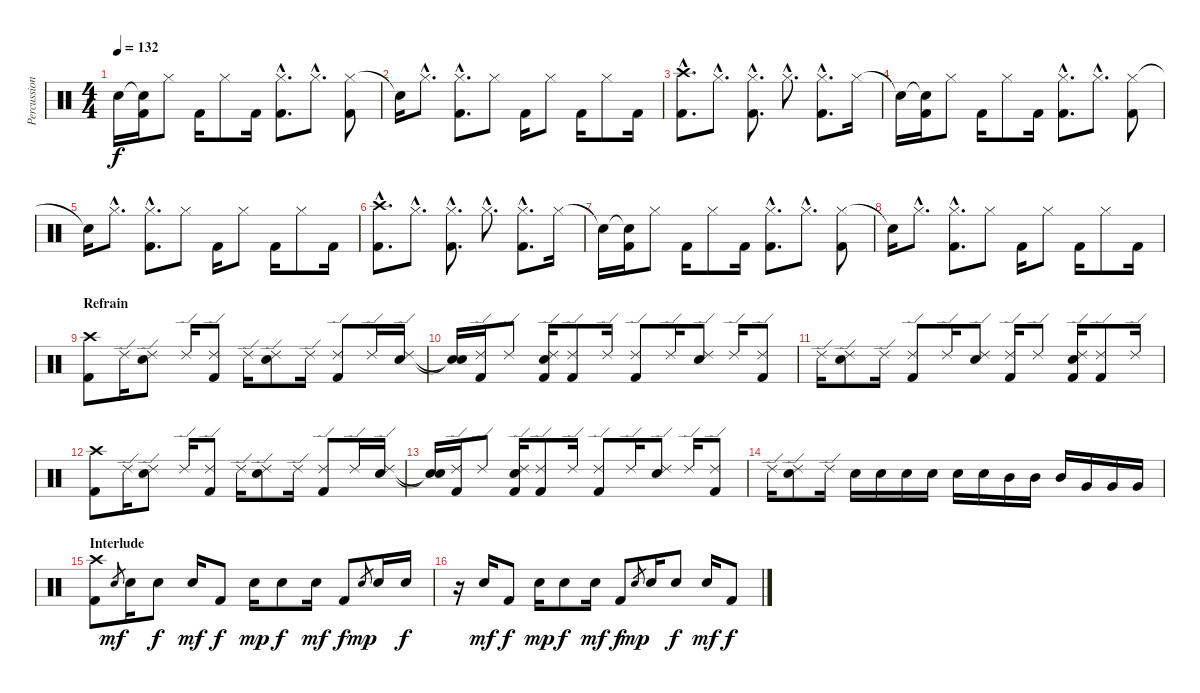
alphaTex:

\track ("Percussion" "Percussion") {instrument percussion}
\staff {score}
\articulation defaults
\ts (4 4)
\tempo 132
\clef neutral
\ks c "Snare (hit)"{t}.16{dy f}
("Snare (hit)"{t} "Kick (hit) 2").16 "Hi-Hat (closed)".8 "Kick (hit) 2".16 "Hi-Hat (closed)".8 "Kick (hit) 2".16 ("Hi-Hat (closed)"{hac} "Kick (hit) 2"{hac}).8{d} "Hi-Hat (closed)"{hac}.8{d} ("Hi-Hat (closed)" "Kick (hit) 2").8 |
"Snare (hit)"{t}.16 "Hi-Hat (closed)"{hac}.8{d} ("Hi-Hat (closed)"{hac} "Kick (hit) 2"{hac}).8{d} "Hi-Hat (closed)".8 "Kick (hit) 2".16 "Hi-Hat (closed)".8 "Kick (hit) 2".16 "Hi-Hat (closed)".8 "Kick (hit) 2".16 |
("Crash high (hit)"{hac} "Kick (hit) 2"{hac}).8{d} "Hi-Hat (closed)"{hac}.8{d} ("Hi-Hat (closed)"{hac} "Kick (hit) 2"{hac}).8{d} "Hi-Hat (closed)"{hac}.8{d} ("Hi-Hat (closed)"{hac} "Kick (hit) 2"{hac}).8{d} "Hi-Hat (closed)".16 |
"Snare (hit)"{t}.16 ("Snare (hit)"{t} "Kick (hit) 2").16 "Hi-Hat (closed)".8 "Kick (hit) 2".16 "Hi-Hat (closed)".8 "Kick (hit) 2".16 ("Hi-Hat (closed)"{hac} "Kick (hit) 2"{hac}).8{d} "Hi-Hat (closed)"{hac}.8{d} ("Hi-Hat (closed)" "Kick (hit) 2").8 |
"Snare (hit)"{t}.16 "Hi-Hat (closed)"{hac}.8{d} ("Hi-Hat (closed)"{hac} "Kick (hit) 2"{hac}).8{d} "Hi-Hat (closed)".8 "Kick (hit) 2".16 "Hi-Hat (closed)".8 "Kick (hit) 2".16 "Hi-Hat (closed)".8 "Kick (hit) 2".16 |
("Crash high (hit)"{hac} "Kick (hit) 2"{hac}).8{d} "Hi-Hat (closed)"{hac}.8{d} ("Hi-Hat (closed)"{hac} "Kick (hit) 2"{hac}).8{d} "Hi-Hat (closed)"{hac}.8{d} ("Hi-Hat (closed)"{hac} "Kick (hit) 2"{hac}).8{d} "Hi-Hat (closed)".16 |
"Snare (hit)"{t}.16 ("Snare (hit)"{t} "Kick (hit) 2").16 "Hi-Hat (closed)".8 "Kick (hit) 2".16 "Hi-Hat (closed)".8 "Kick (hit) 2".16 ("Hi-Hat (closed)"{hac} "Kick (hit) 2"{hac}).8{d} "Hi-Hat (closed)"{hac}.8{d} ("Hi-Hat (closed)" "Kick (hit) 2").8 |
"Snare (hit)"{t}.16 "Hi-Hat (closed)"{hac}.8{d} ("Hi-Hat (closed)"{hac} "Kick (hit) 2"{hac}).8{d} "Hi-Hat (closed)".8 "Kick (hit) 2".16 "Hi-Hat (closed)".8 "Kick (hit) 2".16 "Hi-Hat (closed)".8 "Kick (hit) 2".16 |
\section ("" "Refrain")
("Crash high (hit)" "Kick (hit) 2").8 "Ride (edge) 2".16 ("Ride (edge) 2" "Electric Snare (hit)").8 "Ride (edge) 2".16 ("Ride (edge) 2" "Kick (hit) 2").8 "Ride (edge) 2".16 ("Ride (edge) 2" "Electric Snare (hit)").8 "Ride (edge) 2".16 ("Ride (edge) 2" "Kick (hit) 2").8 "Ride (edge) 2".16 ("Ride (edge) 2" "Electric Snare (hit)").16 |
("Snare (hit)"{t} "Snare (hit)"{t}).16 ("Ride (edge) 2" "Kick (hit) 2").16 "Ride (edge) 2".8 ("Ride (edge) 2" "Electric Snare (hit)" "Kick (hit) 2").16 ("Ride (edge) 2" "Kick (hit) 2").8 "Ride (edge) 2".16 ("Ride (edge) 2" "Kick (hit) 2").8 "Ride (edge) 2".16 ("Ride (edge) 2" "Electric Snare (hit)").8 "Ride (edge) 2".16 ("Ride (edge) 2" "Kick (hit) 2").8 |
"Ride (edge) 2".16 ("Ride (edge) 2" "Electric Snare (hit)").8 "Ride (edge) 2".16 ("Ride (edge) 2" "Kick (hit) 2").8 "Ride (edge) 2".16 ("Ride (edge) 2" "Electric Snare (hit)").8 ("Ride (edge) 2" "Kick (hit) 2").16 "Ride (edge) 2".8 ("Ride (edge) 2" "Electric Snare (hit)" "Kick (hit) 2").16 ("Ride (edge) 2" "Kick (hit) 2").8 "Ride (edge) 2".16 |
("Crash high (hit)" "Kick (hit) 2").8 "Ride (edge) 2".16 ("Ride (edge) 2" "Electric Snare (hit)").8 "Ride (edge) 2".16 ("Ride (edge) 2" "Kick (hit) 2").8 "Ride (edge) 2".16 ("Ride (edge) 2" "Electric Snare (hit)").8 "Ride (edge) 2".16 ("Ride (edge) 2" "Kick (hit) 2").8 "Ride (edge) 2".16 ("Ride (edge) 2" "Electric Snare (hit)").16 |
("Snare (hit)"{t} "Snare (hit)"{t}).16 ("Ride (edge) 2" "Kick (hit) 2").16 "Ride (edge) 2".8 ("Ride (edge) 2" "Electric Snare (hit)" "Kick (hit) 2").16 ("Ride (edge) 2" "Kick (hit) 2").8 "Ride (edge) 2".16 ("Ride (edge) 2" "Kick (hit) 2").8 "Ride (edge) 2".16 ("Ride (edge) 2" "Electric Snare (hit)").8 "Ride (edge) 2".16 ("Ride (edge) 2" "Kick (hit) 2").8 |
"Ride (edge) 2".16 ("Ride (edge) 2" "Electric Snare (hit)").8 "Ride (edge) 2".16 "Electric Snare (hit)".16 "Electric Snare (hit)".16 "Electric Snare (hit)".16 "Snare (hit) 2".16 "Snare (hit) 2".16 "Snare (hit) 2".16 "Mid Tom (hit)".16 "Mid Tom (hit)".16 "Mid Tom (hit)".16 "Very Low Tom (hit)".16 "Very Low Tom (hit)".16 "Very Low Tom (hit)".16 |
\section ("" "Interlude")
("Crash high (hit)" "Kick (hit) 2").8 "Snare (hit) 2".8{gr dy mf} "Snare (hit) 2".16 "Electric Snare (hit)".8{dy f} "Electric Snare (hit)".16{dy mf} "Kick (hit) 2".8{dy f} "Snare (hit) 2".16{dy mp} "Electric Snare (hit)".8{dy f} "Electric Snare (hit)".16{dy mf} "Kick (hit) 2".8{dy f} "Snare (hit) 2".8{gr dy mp} "Snare (hit) 2".16 "Electric Snare (hit)".16{dy f} |
r.16 "Electric Snare (hit)".16{dy mf} "Kick (hit) 2".8{dy f} "Snare (hit) 2".16{dy mp} "Electric Snare (hit)".8{dy f} "Electric Snare (hit)".16{dy mf} "Kick (hit) 2".8{dy f} "Snare (hit) 2".8{gr dy mp} "Snare (hit) 2".16 "Electric Snare (hit)".8{dy f} "Electric Snare (hit)".16{dy mf} "Kick (hit) 2".8{dy f}
